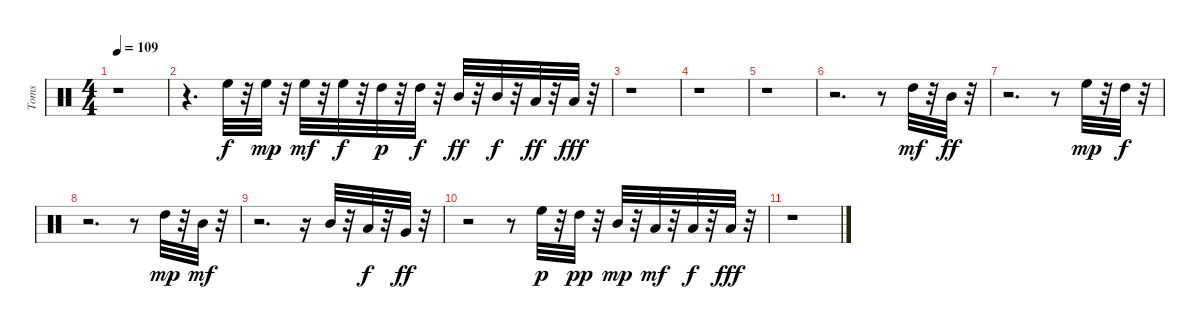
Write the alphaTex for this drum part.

\track ("Toms" "Toms") {instrument percussion}
\staff {score}
\articulation defaults
\ts (4 4)
\tempo 109
\clef neutral
\ks c
r.1{dy f} |
r.4{d} "High Floor Tom (hit)".32 r.32 "High Floor Tom (hit)".32{dy mp} r.32 "High Floor Tom (hit)".32{dy mf} r.32 "High Floor Tom (hit)".32{dy f} r.32 "High Tom (hit)".32{dy p} r.32 "High Tom (hit)".32{dy f} r.32 "Mid Tom (hit)".32{dy ff} r.32 "Mid Tom (hit)".32{dy f} r.32 "Low Tom (hit)".32{dy ff} r.32 "Low Floor Tom (hit)".32{dy fff} r.32 |
r.1 |
r.1 |
r.1 |
r.2{d} r.8 "High Tom (hit)".32{dy mf} r.32 "Mid Tom (hit)".32{dy ff} r.32 |
r.2{d} r.8 "High Floor Tom (hit)".32{dy mp} r.32 "High Tom (hit)".32{dy f} r.32 |
r.2{d} r.8 "High Tom (hit)".32{dy mp} r.32 "Mid Tom (hit)".32{dy mf} r.32 |
r.2{d} r.16 "Mid Tom (hit)".32 r.32 "Low Tom (hit)".32{dy f} r.32 "Very Low Tom (hit)".32{dy ff} r.32 |
r.2 r.8 "High Floor Tom (hit)".32{dy p} r.32 "High Tom (hit)".32{dy pp} r.32 "Mid Tom (hit)".32{dy mp} r.32 "Low Tom (hit)".32{dy mf} r.32 "Low Tom (hit)".32{dy f} r.32 "Low Floor Tom (hit)".32{dy fff} r.32 |
r.1
